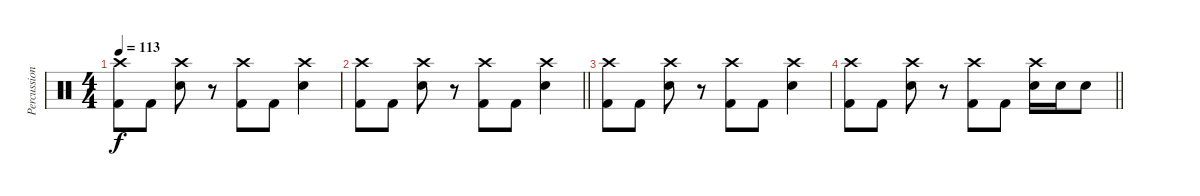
\track ("Percussion" "Percussion") {instrument percussion}
\staff {score}
\articulation defaults
\ts (4 4)
\tempo 113
\clef neutral
\ks c
("Crash high (hit)" "Kick (hit) 2").8{dy f} "Kick (hit) 2".8 ("Crash high (hit)" "Snare (hit) 2").8 r.8 ("Crash high (hit)" "Kick (hit) 2").8 "Kick (hit) 2".8 ("Crash high (hit)" "Snare (hit) 2").4 |
\barLineRight lightlight
("Crash high (hit)" "Kick (hit) 2").8 "Kick (hit) 2".8 ("Crash high (hit)" "Snare (hit) 2").8 r.8 ("Crash high (hit)" "Kick (hit) 2").8 "Kick (hit) 2".8 ("Crash high (hit)" "Snare (hit) 2").4 |
("Crash high (hit)" "Kick (hit) 2").8 "Kick (hit) 2".8 ("Crash high (hit)" "Snare (hit) 2").8 r.8 ("Crash high (hit)" "Kick (hit) 2").8 "Kick (hit) 2".8 ("Crash high (hit)" "Snare (hit) 2").4 |
\barLineRight lightlight
("Crash high (hit)" "Kick (hit) 2").8 "Kick (hit) 2".8 ("Crash high (hit)" "Snare (hit) 2").8 r.8 ("Crash high (hit)" "Kick (hit) 2").8 "Kick (hit) 2".8 ("Crash high (hit)" "Snare (hit) 2").16 "Snare (hit) 2".16 "Snare (hit) 2".8
